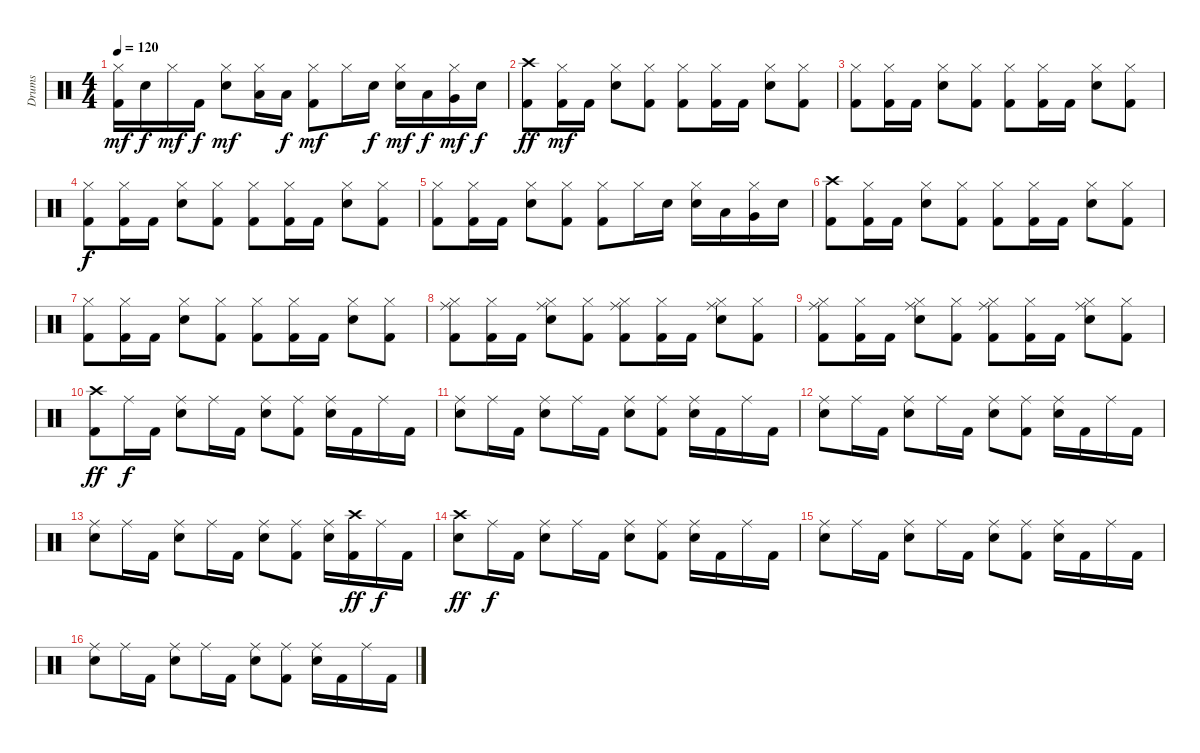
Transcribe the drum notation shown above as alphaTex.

\track ("Drums" "Drums") {instrument percussion}
\staff {score}
\articulation defaults
\ts (4 4)
\tempo 120
\clef neutral
\ks c
("Hi-Hat (closed)" "Kick (hit) 2").16{dy mf} "Snare (hit) 2".16{dy f} "Hi-Hat (closed)".16{dy mf} "Kick (hit) 2".16{dy f} ("Snare (hit) 2" "Hi-Hat (closed)").8{dy mf} ("Low Tom (hit)" "Hi-Hat (closed)").16 "Low Tom (hit)".16{dy f} ("Kick (hit) 2" "Hi-Hat (closed)").8{dy mf} "Hi-Hat (closed)".16 "Snare (hit) 2".16{dy f} ("Snare (hit) 2" "Hi-Hat (closed)").16{dy mf} "Low Tom (hit)".16{dy f} ("Hi-Hat (closed)" "Very Low Tom (hit)").16{dy mf} "Snare (hit) 2".16{dy f} |
("Kick (hit) 2" "Crash high (hit)").8{dy ff} ("Kick (hit) 2" "Hi-Hat (closed)").16{dy mf} "Kick (hit) 2".16 ("Snare (hit) 2" "Hi-Hat (closed)").8 ("Hi-Hat (closed)" "Kick (hit) 2").8 ("Kick (hit) 2" "Hi-Hat (closed)").8 ("Hi-Hat (closed)" "Kick (hit) 2").16 "Kick (hit) 2".16 ("Hi-Hat (closed)" "Snare (hit) 2").8 ("Hi-Hat (closed)" "Kick (hit) 2").8 |
("Kick (hit) 2" "Hi-Hat (closed)").8 ("Hi-Hat (closed)" "Kick (hit) 2").16 "Kick (hit) 2".16 ("Hi-Hat (closed)" "Snare (hit) 2").8 ("Kick (hit) 2" "Hi-Hat (closed)").8 ("Kick (hit) 2" "Hi-Hat (closed)").8 ("Kick (hit) 2" "Hi-Hat (closed)").16 "Kick (hit) 2".16 ("Hi-Hat (closed)" "Snare (hit) 2").8 ("Hi-Hat (closed)" "Kick (hit) 2").8 |
("Kick (hit) 2" "Hi-Hat (closed)").8{dy f} ("Kick (hit) 2" "Hi-Hat (closed)").16 "Kick (hit) 2".16 ("Hi-Hat (closed)" "Snare (hit) 2").8 ("Hi-Hat (closed)" "Kick (hit) 2").8 ("Kick (hit) 2" "Hi-Hat (closed)").8 ("Kick (hit) 2" "Hi-Hat (closed)").16 "Kick (hit) 2".16 ("Snare (hit) 2" "Hi-Hat (closed)").8 ("Kick (hit) 2" "Hi-Hat (closed)").8 |
("Hi-Hat (closed)" "Kick (hit) 2").8 ("Kick (hit) 2" "Hi-Hat (closed)").16 "Kick (hit) 2".16 ("Hi-Hat (closed)" "Snare (hit) 2").8 ("Hi-Hat (closed)" "Kick (hit) 2").8 ("Hi-Hat (closed)" "Kick (hit) 2").8 "Hi-Hat (closed)".16 "Snare (hit) 2".16 ("Snare (hit) 2" "Hi-Hat (closed)").16 "Low Tom (hit)".16 ("Hi-Hat (closed)" "Very Low Tom (hit)").16 "Snare (hit) 2".16 |
("Kick (hit) 2" "Crash high (hit)").8 ("Kick (hit) 2" "Hi-Hat (closed)").16 "Kick (hit) 2".16 ("Snare (hit) 2" "Hi-Hat (closed)").8 ("Kick (hit) 2" "Hi-Hat (closed)").8 ("Hi-Hat (closed)" "Kick (hit) 2").8 ("Kick (hit) 2" "Hi-Hat (closed)").16 "Kick (hit) 2".16 ("Snare (hit) 2" "Hi-Hat (closed)").8 ("Kick (hit) 2" "Hi-Hat (closed)").8 |
("Kick (hit) 2" "Hi-Hat (closed)").8 ("Kick (hit) 2" "Hi-Hat (closed)").16 "Kick (hit) 2".16 ("Snare (hit) 2" "Hi-Hat (closed)").8 ("Hi-Hat (closed)" "Kick (hit) 2").8 ("Hi-Hat (closed)" "Kick (hit) 2").8 ("Kick (hit) 2" "Hi-Hat (closed)").16 "Kick (hit) 2".16 ("Snare (hit) 2" "Hi-Hat (closed)").8 ("Hi-Hat (closed)" "Kick (hit) 2").8 |
("Hi-Hat (closed)" "Kick (hit) 2" "Ride (middle)").8 ("Kick (hit) 2" "Hi-Hat (closed)").16 "Kick (hit) 2".16 ("Hi-Hat (closed)" "Snare (hit) 2" "Ride (middle)").8 ("Hi-Hat (closed)" "Kick (hit) 2").8 ("Kick (hit) 2" "Hi-Hat (closed)" "Ride (middle)").8 ("Hi-Hat (closed)" "Kick (hit) 2").16 "Kick (hit) 2".16 ("Ride (middle)" "Snare (hit) 2" "Hi-Hat (closed)").8 ("Hi-Hat (closed)" "Kick (hit) 2").8 |
("Kick (hit) 2" "Ride (middle)" "Hi-Hat (closed)").8 ("Kick (hit) 2" "Hi-Hat (closed)").16 "Kick (hit) 2".16 ("Snare (hit) 2" "Hi-Hat (closed)" "Ride (middle)").8 ("Kick (hit) 2" "Hi-Hat (closed)").8 ("Hi-Hat (closed)" "Ride (middle)" "Kick (hit) 2").8 ("Kick (hit) 2" "Hi-Hat (closed)").16 "Kick (hit) 2".16 ("Hi-Hat (closed)" "Snare (hit) 2" "Ride (middle)").8 ("Kick (hit) 2" "Hi-Hat (closed)").8 |
("Kick (hit) 2" "Crash high (hit)").8{dy ff} "Ride (middle)".16{dy f} "Kick (hit) 2".16 ("Ride (middle)" "Snare (hit) 2").8 "Ride (middle)".16 "Kick (hit) 2".16 ("Snare (hit) 2" "Ride (middle)").8 ("Kick (hit) 2" "Ride (middle)").8 ("Snare (hit) 2" "Ride (middle)").16 "Kick (hit) 2".16 "Ride (middle)".16 "Kick (hit) 2".16 |
("Snare (hit) 2" "Ride (middle)").8 "Ride (middle)".16 "Kick (hit) 2".16 ("Snare (hit) 2" "Ride (middle)").8 "Ride (middle)".16 "Kick (hit) 2".16 ("Ride (middle)" "Snare (hit) 2").8 ("Ride (middle)" "Kick (hit) 2").8 ("Snare (hit) 2" "Ride (middle)").16 "Kick (hit) 2".16 "Ride (middle)".16 "Kick (hit) 2".16 |
("Ride (middle)" "Snare (hit) 2").8 "Ride (middle)".16 "Kick (hit) 2".16 ("Snare (hit) 2" "Ride (middle)").8 "Ride (middle)".16 "Kick (hit) 2".16 ("Ride (middle)" "Snare (hit) 2").8 ("Ride (middle)" "Kick (hit) 2").8 ("Ride (middle)" "Snare (hit) 2").16 "Kick (hit) 2".16 "Ride (middle)".16 "Kick (hit) 2".16 |
("Ride (middle)" "Snare (hit) 2").8 "Ride (middle)".16 "Kick (hit) 2".16 ("Snare (hit) 2" "Ride (middle)").8 "Ride (middle)".16 "Kick (hit) 2".16 ("Ride (middle)" "Snare (hit) 2").8 ("Ride (middle)" "Kick (hit) 2").8 ("Ride (middle)" "Snare (hit) 2").16 ("Kick (hit) 2" "Crash high (hit)").16{dy ff} "Ride (middle)".16{dy f} "Kick (hit) 2".16 |
("Snare (hit) 2" "Crash high (hit)").8{dy ff} "Ride (middle)".16{dy f} "Kick (hit) 2".16 ("Ride (middle)" "Snare (hit) 2").8 "Ride (middle)".16 "Kick (hit) 2".16 ("Ride (middle)" "Snare (hit) 2").8 ("Kick (hit) 2" "Ride (middle)").8 ("Ride (middle)" "Snare (hit) 2").16 "Kick (hit) 2".16 "Ride (middle)".16 "Kick (hit) 2".16 |
("Snare (hit) 2" "Ride (middle)").8 "Ride (middle)".16 "Kick (hit) 2".16 ("Snare (hit) 2" "Ride (middle)").8 "Ride (middle)".16 "Kick (hit) 2".16 ("Ride (middle)" "Snare (hit) 2").8 ("Kick (hit) 2" "Ride (middle)").8 ("Ride (middle)" "Snare (hit) 2").16 "Kick (hit) 2".16 "Ride (middle)".16 "Kick (hit) 2".16 |
("Ride (middle)" "Snare (hit) 2").8 "Ride (middle)".16 "Kick (hit) 2".16 ("Snare (hit) 2" "Ride (middle)").8 "Ride (middle)".16 "Kick (hit) 2".16 ("Snare (hit) 2" "Ride (middle)").8 ("Ride (middle)" "Kick (hit) 2").8 ("Ride (middle)" "Snare (hit) 2").16 "Kick (hit) 2".16 "Ride (middle)".16 "Kick (hit) 2".16
